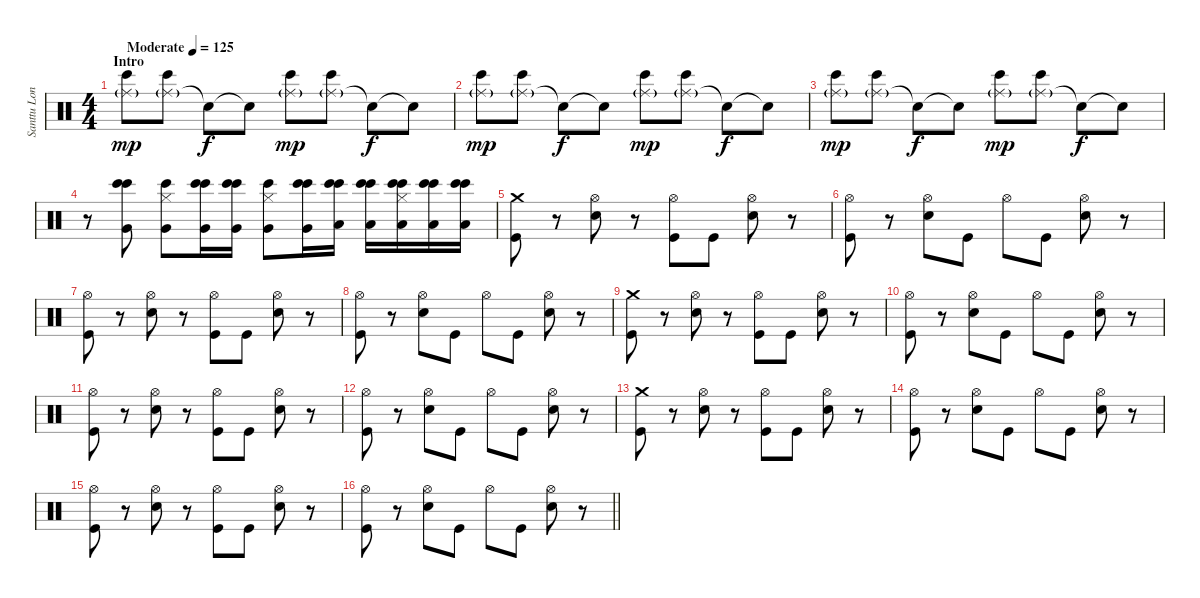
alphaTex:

\track ("Santtu Lonka" "Santtu Lon") {instrument percussion}
\staff {score}
\articulation defaults
\ts (4 4)
\section ("" "Intro")
\tempo (125 "Moderate")
\clef neutral
\ks c
("Ride (middle)"{g} "Bongo High (hit)").8{dy mp} ("Ride (middle)"{g} "Bongo High (hit)").8 "Snare (hit)"{t}.8{dy f} "Snare (hit)"{t}.8 ("Ride (middle)"{g} "Bongo High (hit)").8{dy mp} ("Ride (middle)"{g} "Bongo High (hit)").8 "Snare (hit)"{t}.8{dy f} "Snare (hit)"{t}.8 |
("Ride (middle)"{g} "Bongo High (hit)").8{dy mp} ("Ride (middle)"{g} "Bongo High (hit)").8 "Snare (hit)"{t}.8{dy f} "Snare (hit)"{t}.8 ("Ride (middle)"{g} "Bongo High (hit)").8{dy mp} ("Ride (middle)"{g} "Bongo High (hit)").8 "Snare (hit)"{t}.8{dy f} "Snare (hit)"{t}.8 |
("Ride (middle)"{g} "Bongo High (hit)").8{dy mp} ("Ride (middle)"{g} "Bongo High (hit)").8 "Snare (hit)"{t}.8{dy f} "Snare (hit)"{t}.8 ("Ride (middle)"{g} "Bongo High (hit)").8{dy mp} ("Ride (middle)"{g} "Bongo High (hit)").8 "Snare (hit)"{t}.8{dy f} "Snare (hit)"{t}.8 |
r.8 ("Very Low Tom (hit)" "Bongo High (hit)" "Bongo High (hit)").8 ("Very Low Tom (hit)" "Hi-Hat (closed)" "Bongo High (hit)").8 ("Very Low Tom (hit)" "Bongo High (hit)" "Bongo High (hit)").16 ("Very Low Tom (hit)" "Bongo High (hit)" "Bongo High (hit)").16 ("Very Low Tom (hit)" "Hi-Hat (closed)" "Bongo High (hit)").8 ("Very Low Tom (hit)" "Bongo High (hit)" "Bongo High (hit)").16 ("Low Tom (hit)" "Bongo High (hit)" "Bongo High (hit)").16 ("Low Tom (hit)" "Bongo High (hit)" "Bongo High (hit)").16 ("Low Tom (hit)" "Hi-Hat (closed)" "Bongo High (hit)" "Bongo High (hit)").16 ("Low Tom (hit)" "Bongo High (hit)" "Bongo High (hit)").16 ("Low Tom (hit)" "Bongo High (hit)" "Bongo High (hit)").16 |
("Crash medium (hit)" "Kick (hit)").8 r.8 ("Hi-Hat (open)" "Electric Snare (hit)").8 r.8 ("Hi-Hat (open)" "Kick (hit)").8 "Kick (hit)".8 ("Hi-Hat (open)" "Electric Snare (hit)").8 r.8 |
("Hi-Hat (open)" "Kick (hit)").8 r.8 ("Hi-Hat (open)" "Electric Snare (hit)").8 "Kick (hit)".8 "Hi-Hat (open)".8 "Kick (hit)".8 ("Hi-Hat (open)" "Electric Snare (hit)").8 r.8 |
("Hi-Hat (open)" "Kick (hit)").8 r.8 ("Hi-Hat (open)" "Electric Snare (hit)").8 r.8 ("Hi-Hat (open)" "Kick (hit)").8 "Kick (hit)".8 ("Hi-Hat (open)" "Electric Snare (hit)").8 r.8 |
("Hi-Hat (open)" "Kick (hit)").8 r.8 ("Hi-Hat (open)" "Electric Snare (hit)").8 "Kick (hit)".8 "Hi-Hat (open)".8 "Kick (hit)".8 ("Hi-Hat (open)" "Electric Snare (hit)").8 r.8 |
("Crash medium (hit)" "Kick (hit)").8 r.8 ("Hi-Hat (open)" "Electric Snare (hit)").8 r.8 ("Hi-Hat (open)" "Kick (hit)").8 "Kick (hit)".8 ("Hi-Hat (open)" "Electric Snare (hit)").8 r.8 |
("Hi-Hat (open)" "Kick (hit)").8 r.8 ("Hi-Hat (open)" "Electric Snare (hit)").8 "Kick (hit)".8 "Hi-Hat (open)".8 "Kick (hit)".8 ("Hi-Hat (open)" "Electric Snare (hit)").8 r.8 |
("Hi-Hat (open)" "Kick (hit)").8 r.8 ("Hi-Hat (open)" "Electric Snare (hit)").8 r.8 ("Hi-Hat (open)" "Kick (hit)").8 "Kick (hit)".8 ("Hi-Hat (open)" "Electric Snare (hit)").8 r.8 |
("Hi-Hat (open)" "Kick (hit)").8 r.8 ("Hi-Hat (open)" "Electric Snare (hit)").8 "Kick (hit)".8 "Hi-Hat (open)".8 "Kick (hit)".8 ("Hi-Hat (open)" "Electric Snare (hit)").8 r.8 |
("Crash medium (hit)" "Kick (hit)").8 r.8 ("Hi-Hat (open)" "Electric Snare (hit)").8 r.8 ("Hi-Hat (open)" "Kick (hit)").8 "Kick (hit)".8 ("Hi-Hat (open)" "Electric Snare (hit)").8 r.8 |
("Hi-Hat (open)" "Kick (hit)").8 r.8 ("Hi-Hat (open)" "Electric Snare (hit)").8 "Kick (hit)".8 "Hi-Hat (open)".8 "Kick (hit)".8 ("Hi-Hat (open)" "Electric Snare (hit)").8 r.8 |
("Hi-Hat (open)" "Kick (hit)").8 r.8 ("Hi-Hat (open)" "Electric Snare (hit)").8 r.8 ("Hi-Hat (open)" "Kick (hit)").8 "Kick (hit)".8 ("Hi-Hat (open)" "Electric Snare (hit)").8 r.8 |
\barLineRight lightlight
("Hi-Hat (open)" "Kick (hit)").8 r.8 ("Hi-Hat (open)" "Electric Snare (hit)").8 "Kick (hit)".8 "Hi-Hat (open)".8 "Kick (hit)".8 ("Hi-Hat (open)" "Electric Snare (hit)").8 r.8
